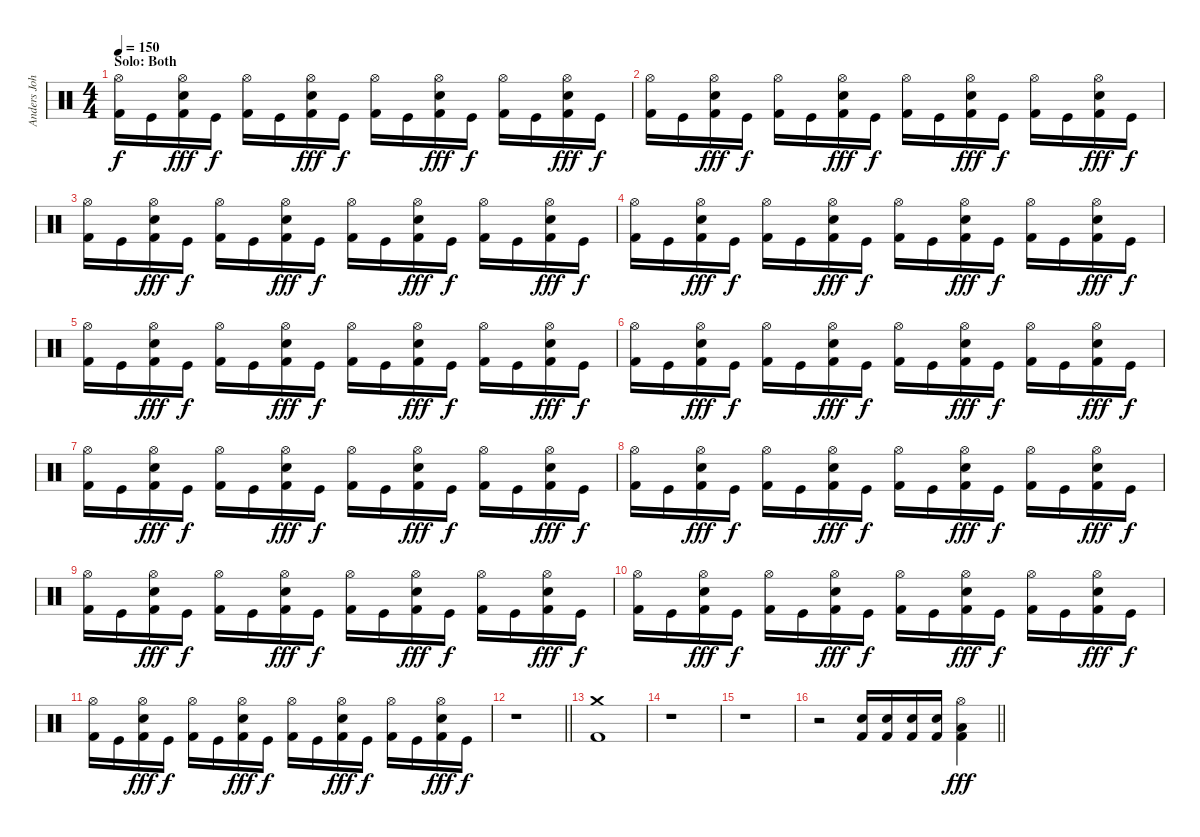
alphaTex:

\track ("Anders Johansson" "Anders Joh") {instrument percussion}
\staff {score}
\articulation defaults
\ts (4 4)
\section ("" "Solo: Both")
\tempo 150
\clef neutral
\ks c
("Hi-Hat (open)" "Kick (hit) 2").16{dy f} "Kick (hit)".16 ("Hi-Hat (open)" "Electric Snare (hit)" "Kick (hit) 2").16{dy fff} "Kick (hit)".16{dy f} ("Hi-Hat (open)" "Kick (hit) 2").16 "Kick (hit)".16 ("Hi-Hat (open)" "Electric Snare (hit)" "Kick (hit) 2").16{dy fff} "Kick (hit)".16{dy f} ("Hi-Hat (open)" "Kick (hit) 2").16 "Kick (hit)".16 ("Hi-Hat (open)" "Electric Snare (hit)" "Kick (hit) 2").16{dy fff} "Kick (hit)".16{dy f} ("Hi-Hat (open)" "Kick (hit) 2").16 "Kick (hit)".16 ("Hi-Hat (open)" "Electric Snare (hit)" "Kick (hit) 2").16{dy fff} "Kick (hit)".16{dy f} |
("Hi-Hat (open)" "Kick (hit) 2").16 "Kick (hit)".16 ("Hi-Hat (open)" "Electric Snare (hit)" "Kick (hit) 2").16{dy fff} "Kick (hit)".16{dy f} ("Hi-Hat (open)" "Kick (hit) 2").16 "Kick (hit)".16 ("Hi-Hat (open)" "Electric Snare (hit)" "Kick (hit) 2").16{dy fff} "Kick (hit)".16{dy f} ("Hi-Hat (open)" "Kick (hit) 2").16 "Kick (hit)".16 ("Hi-Hat (open)" "Electric Snare (hit)" "Kick (hit) 2").16{dy fff} "Kick (hit)".16{dy f} ("Hi-Hat (open)" "Kick (hit) 2").16 "Kick (hit)".16 ("Hi-Hat (open)" "Electric Snare (hit)" "Kick (hit) 2").16{dy fff} "Kick (hit)".16{dy f} |
("Hi-Hat (open)" "Kick (hit) 2").16 "Kick (hit)".16 ("Hi-Hat (open)" "Electric Snare (hit)" "Kick (hit) 2").16{dy fff} "Kick (hit)".16{dy f} ("Hi-Hat (open)" "Kick (hit) 2").16 "Kick (hit)".16 ("Hi-Hat (open)" "Electric Snare (hit)" "Kick (hit) 2").16{dy fff} "Kick (hit)".16{dy f} ("Hi-Hat (open)" "Kick (hit) 2").16 "Kick (hit)".16 ("Hi-Hat (open)" "Electric Snare (hit)" "Kick (hit) 2").16{dy fff} "Kick (hit)".16{dy f} ("Hi-Hat (open)" "Kick (hit) 2").16 "Kick (hit)".16 ("Hi-Hat (open)" "Electric Snare (hit)" "Kick (hit) 2").16{dy fff} "Kick (hit)".16{dy f} |
("Hi-Hat (open)" "Kick (hit) 2").16 "Kick (hit)".16 ("Hi-Hat (open)" "Electric Snare (hit)" "Kick (hit) 2").16{dy fff} "Kick (hit)".16{dy f} ("Hi-Hat (open)" "Kick (hit) 2").16 "Kick (hit)".16 ("Hi-Hat (open)" "Electric Snare (hit)" "Kick (hit) 2").16{dy fff} "Kick (hit)".16{dy f} ("Hi-Hat (open)" "Kick (hit) 2").16 "Kick (hit)".16 ("Hi-Hat (open)" "Electric Snare (hit)" "Kick (hit) 2").16{dy fff} "Kick (hit)".16{dy f} ("Hi-Hat (open)" "Kick (hit) 2").16 "Kick (hit)".16 ("Hi-Hat (open)" "Electric Snare (hit)" "Kick (hit) 2").16{dy fff} "Kick (hit)".16{dy f} |
("Hi-Hat (open)" "Kick (hit) 2").16 "Kick (hit)".16 ("Hi-Hat (open)" "Electric Snare (hit)" "Kick (hit) 2").16{dy fff} "Kick (hit)".16{dy f} ("Hi-Hat (open)" "Kick (hit) 2").16 "Kick (hit)".16 ("Hi-Hat (open)" "Electric Snare (hit)" "Kick (hit) 2").16{dy fff} "Kick (hit)".16{dy f} ("Hi-Hat (open)" "Kick (hit) 2").16 "Kick (hit)".16 ("Hi-Hat (open)" "Electric Snare (hit)" "Kick (hit) 2").16{dy fff} "Kick (hit)".16{dy f} ("Hi-Hat (open)" "Kick (hit) 2").16 "Kick (hit)".16 ("Hi-Hat (open)" "Electric Snare (hit)" "Kick (hit) 2").16{dy fff} "Kick (hit)".16{dy f} |
("Hi-Hat (open)" "Kick (hit) 2").16 "Kick (hit)".16 ("Hi-Hat (open)" "Electric Snare (hit)" "Kick (hit) 2").16{dy fff} "Kick (hit)".16{dy f} ("Hi-Hat (open)" "Kick (hit) 2").16 "Kick (hit)".16 ("Hi-Hat (open)" "Electric Snare (hit)" "Kick (hit) 2").16{dy fff} "Kick (hit)".16{dy f} ("Hi-Hat (open)" "Kick (hit) 2").16 "Kick (hit)".16 ("Hi-Hat (open)" "Electric Snare (hit)" "Kick (hit) 2").16{dy fff} "Kick (hit)".16{dy f} ("Hi-Hat (open)" "Kick (hit) 2").16 "Kick (hit)".16 ("Hi-Hat (open)" "Electric Snare (hit)" "Kick (hit) 2").16{dy fff} "Kick (hit)".16{dy f} |
("Hi-Hat (open)" "Kick (hit) 2").16 "Kick (hit)".16 ("Hi-Hat (open)" "Electric Snare (hit)" "Kick (hit) 2").16{dy fff} "Kick (hit)".16{dy f} ("Hi-Hat (open)" "Kick (hit) 2").16 "Kick (hit)".16 ("Hi-Hat (open)" "Electric Snare (hit)" "Kick (hit) 2").16{dy fff} "Kick (hit)".16{dy f} ("Hi-Hat (open)" "Kick (hit) 2").16 "Kick (hit)".16 ("Hi-Hat (open)" "Electric Snare (hit)" "Kick (hit) 2").16{dy fff} "Kick (hit)".16{dy f} ("Hi-Hat (open)" "Kick (hit) 2").16 "Kick (hit)".16 ("Hi-Hat (open)" "Electric Snare (hit)" "Kick (hit) 2").16{dy fff} "Kick (hit)".16{dy f} |
("Hi-Hat (open)" "Kick (hit) 2").16 "Kick (hit)".16 ("Hi-Hat (open)" "Electric Snare (hit)" "Kick (hit) 2").16{dy fff} "Kick (hit)".16{dy f} ("Hi-Hat (open)" "Kick (hit) 2").16 "Kick (hit)".16 ("Hi-Hat (open)" "Electric Snare (hit)" "Kick (hit) 2").16{dy fff} "Kick (hit)".16{dy f} ("Hi-Hat (open)" "Kick (hit) 2").16 "Kick (hit)".16 ("Hi-Hat (open)" "Electric Snare (hit)" "Kick (hit) 2").16{dy fff} "Kick (hit)".16{dy f} ("Hi-Hat (open)" "Kick (hit) 2").16 "Kick (hit)".16 ("Hi-Hat (open)" "Electric Snare (hit)" "Kick (hit) 2").16{dy fff} "Kick (hit)".16{dy f} |
("Hi-Hat (open)" "Kick (hit) 2").16 "Kick (hit)".16 ("Hi-Hat (open)" "Electric Snare (hit)" "Kick (hit) 2").16{dy fff} "Kick (hit)".16{dy f} ("Hi-Hat (open)" "Kick (hit) 2").16 "Kick (hit)".16 ("Hi-Hat (open)" "Electric Snare (hit)" "Kick (hit) 2").16{dy fff} "Kick (hit)".16{dy f} ("Hi-Hat (open)" "Kick (hit) 2").16 "Kick (hit)".16 ("Hi-Hat (open)" "Electric Snare (hit)" "Kick (hit) 2").16{dy fff} "Kick (hit)".16{dy f} ("Hi-Hat (open)" "Kick (hit) 2").16 "Kick (hit)".16 ("Hi-Hat (open)" "Electric Snare (hit)" "Kick (hit) 2").16{dy fff} "Kick (hit)".16{dy f} |
("Hi-Hat (open)" "Kick (hit) 2").16 "Kick (hit)".16 ("Hi-Hat (open)" "Electric Snare (hit)" "Kick (hit) 2").16{dy fff} "Kick (hit)".16{dy f} ("Hi-Hat (open)" "Kick (hit) 2").16 "Kick (hit)".16 ("Hi-Hat (open)" "Electric Snare (hit)" "Kick (hit) 2").16{dy fff} "Kick (hit)".16{dy f} ("Hi-Hat (open)" "Kick (hit) 2").16 "Kick (hit)".16 ("Hi-Hat (open)" "Electric Snare (hit)" "Kick (hit) 2").16{dy fff} "Kick (hit)".16{dy f} ("Hi-Hat (open)" "Kick (hit) 2").16 "Kick (hit)".16 ("Hi-Hat (open)" "Electric Snare (hit)" "Kick (hit) 2").16{dy fff} "Kick (hit)".16{dy f} |
("Hi-Hat (open)" "Kick (hit) 2").16 "Kick (hit)".16 ("Hi-Hat (open)" "Electric Snare (hit)" "Kick (hit) 2").16{dy fff} "Kick (hit)".16{dy f} ("Hi-Hat (open)" "Kick (hit) 2").16 "Kick (hit)".16 ("Hi-Hat (open)" "Electric Snare (hit)" "Kick (hit) 2").16{dy fff} "Kick (hit)".16{dy f} ("Hi-Hat (open)" "Kick (hit) 2").16 "Kick (hit)".16 ("Hi-Hat (open)" "Electric Snare (hit)" "Kick (hit) 2").16{dy fff} "Kick (hit)".16{dy f} ("Hi-Hat (open)" "Kick (hit) 2").16 "Kick (hit)".16 ("Hi-Hat (open)" "Electric Snare (hit)" "Kick (hit) 2").16{dy fff} "Kick (hit)".16{dy f} |
\barLineRight lightlight
r.1 |
("Crash medium (hit)" "Kick (hit) 2").1 |
r.1 |
r.1 |
\barLineRight lightlight
r.2 ("Electric Snare (hit)" "Kick (hit) 2").16 ("Electric Snare (hit)" "Kick (hit) 2").16 ("Electric Snare (hit)" "Kick (hit) 2").16 ("Electric Snare (hit)" "Kick (hit) 2").16 ("Hi-Hat (open)" "Low Tom (hit)" "Kick (hit) 2").4{dy fff}
